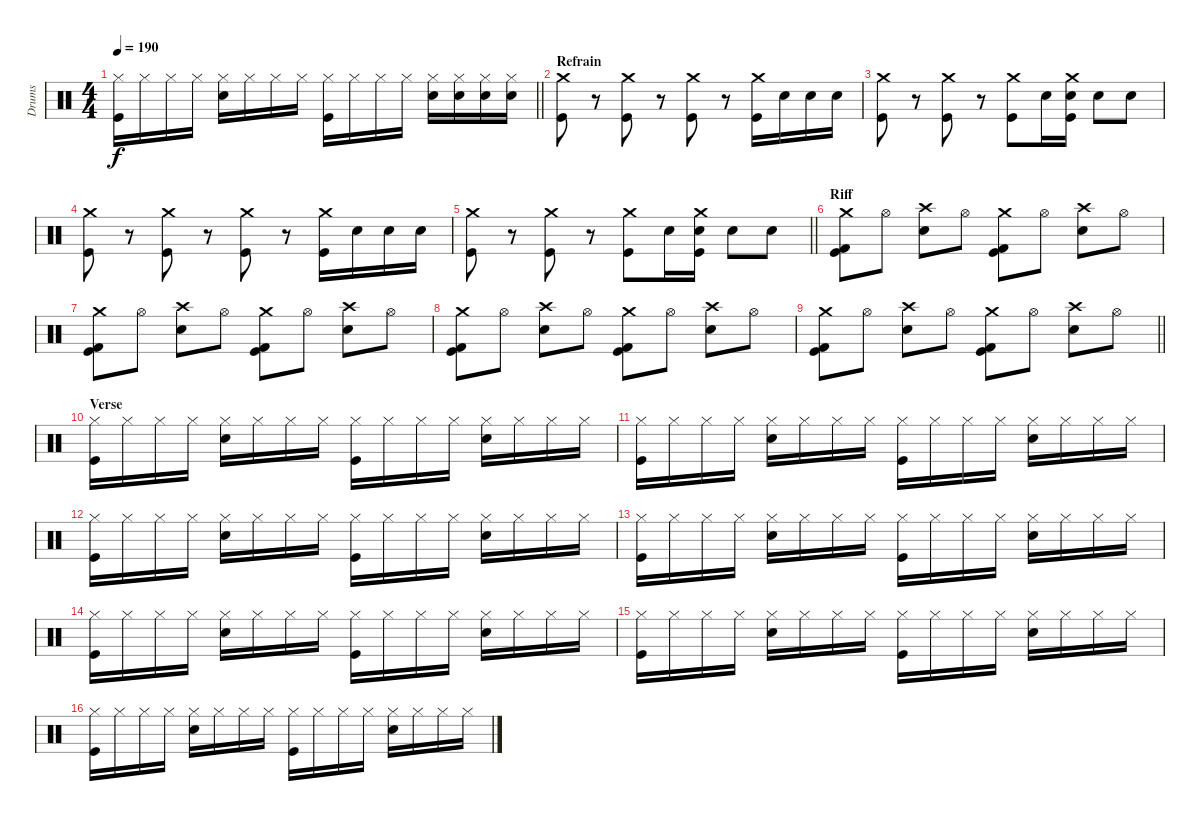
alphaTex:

\track ("Drums" "Drums") {instrument percussion}
\staff {score}
\articulation defaults
\ts (4 4)
\tempo 190
\clef neutral
\barLineRight lightlight
\ks c
("Hi-Hat (closed)" "Kick (hit)").16{dy f} "Hi-Hat (closed)".16 "Hi-Hat (closed)".16 "Hi-Hat (closed)".16 ("Hi-Hat (closed)" "Electric Snare (hit)").16 "Hi-Hat (closed)".16 "Hi-Hat (closed)".16 "Hi-Hat (closed)".16 ("Hi-Hat (closed)" "Kick (hit)").16 "Hi-Hat (closed)".16 "Hi-Hat (closed)".16 "Hi-Hat (closed)".16 ("Hi-Hat (closed)" "Electric Snare (hit)").16 ("Hi-Hat (closed)" "Electric Snare (hit)").16 ("Hi-Hat (closed)" "Electric Snare (hit)").16 ("Hi-Hat (closed)" "Electric Snare (hit)").16 |
\section ("" "Refrain")
("Crash medium (hit)" "Kick (hit)").8 r.8 ("Crash medium (hit)" "Kick (hit)").8 r.8 ("Crash medium (hit)" "Kick (hit)").8 r.8 ("Crash medium (hit)" "Kick (hit)").16 "Electric Snare (hit)".16 "Electric Snare (hit)".16 "Electric Snare (hit)".16 |
("Crash medium (hit)" "Kick (hit)").8 r.8 ("Crash medium (hit)" "Kick (hit)").8 r.8 ("Crash medium (hit)" "Kick (hit)").8 "Electric Snare (hit)".16 ("Crash medium (hit)" "Electric Snare (hit)" "Kick (hit)").16 "Electric Snare (hit)".8 "Electric Snare (hit)".8 |
("Crash medium (hit)" "Kick (hit)").8 r.8 ("Crash medium (hit)" "Kick (hit)").8 r.8 ("Crash medium (hit)" "Kick (hit)").8 r.8 ("Crash medium (hit)" "Kick (hit)").16 "Electric Snare (hit)".16 "Electric Snare (hit)".16 "Electric Snare (hit)".16 |
\barLineRight lightlight
("Crash medium (hit)" "Kick (hit)").8 r.8 ("Crash medium (hit)" "Kick (hit)").8 r.8 ("Crash medium (hit)" "Kick (hit)").8 "Electric Snare (hit)".16 ("Crash medium (hit)" "Electric Snare (hit)" "Kick (hit)").16 "Electric Snare (hit)".8 "Electric Snare (hit)".8 |
\section ("" "Riff")
("Crash medium (hit)" "Kick (hit) 2" "Kick (hit)").8 "Hi-Hat (open)".8 ("Crash high (hit)" "Electric Snare (hit)").8 "Hi-Hat (open)".8 ("Crash medium (hit)" "Kick (hit) 2" "Kick (hit)").8 "Hi-Hat (open)".8 ("Crash high (hit)" "Electric Snare (hit)").8 "Hi-Hat (open)".8 |
("Crash medium (hit)" "Kick (hit) 2" "Kick (hit)").8 "Hi-Hat (open)".8 ("Crash high (hit)" "Electric Snare (hit)").8 "Hi-Hat (open)".8 ("Crash medium (hit)" "Kick (hit) 2" "Kick (hit)").8 "Hi-Hat (open)".8 ("Crash high (hit)" "Electric Snare (hit)").8 "Hi-Hat (open)".8 |
("Crash medium (hit)" "Kick (hit) 2" "Kick (hit)").8 "Hi-Hat (open)".8 ("Crash high (hit)" "Electric Snare (hit)").8 "Hi-Hat (open)".8 ("Crash medium (hit)" "Kick (hit) 2" "Kick (hit)").8 "Hi-Hat (open)".8 ("Crash high (hit)" "Electric Snare (hit)").8 "Hi-Hat (open)".8 |
\barLineRight lightlight
("Crash medium (hit)" "Kick (hit) 2" "Kick (hit)").8 "Hi-Hat (open)".8 ("Crash high (hit)" "Electric Snare (hit)").8 "Hi-Hat (open)".8 ("Crash medium (hit)" "Kick (hit) 2" "Kick (hit)").8 "Hi-Hat (open)".8 ("Crash high (hit)" "Electric Snare (hit)").8 "Hi-Hat (open)".8 |
\section ("" "Verse")
("Hi-Hat (closed)" "Kick (hit)").16 "Hi-Hat (closed)".16 "Hi-Hat (closed)".16 "Hi-Hat (closed)".16 ("Hi-Hat (closed)" "Electric Snare (hit)").16 "Hi-Hat (closed)".16 "Hi-Hat (closed)".16 "Hi-Hat (closed)".16 ("Hi-Hat (closed)" "Kick (hit)").16 "Hi-Hat (closed)".16 "Hi-Hat (closed)".16 "Hi-Hat (closed)".16 ("Hi-Hat (closed)" "Electric Snare (hit)").16 "Hi-Hat (closed)".16 "Hi-Hat (closed)".16 "Hi-Hat (closed)".16 |
("Hi-Hat (closed)" "Kick (hit)").16 "Hi-Hat (closed)".16 "Hi-Hat (closed)".16 "Hi-Hat (closed)".16 ("Hi-Hat (closed)" "Electric Snare (hit)").16 "Hi-Hat (closed)".16 "Hi-Hat (closed)".16 "Hi-Hat (closed)".16 ("Hi-Hat (closed)" "Kick (hit)").16 "Hi-Hat (closed)".16 "Hi-Hat (closed)".16 "Hi-Hat (closed)".16 ("Hi-Hat (closed)" "Electric Snare (hit)").16 "Hi-Hat (closed)".16 "Hi-Hat (closed)".16 "Hi-Hat (closed)".16 |
("Hi-Hat (closed)" "Kick (hit)").16 "Hi-Hat (closed)".16 "Hi-Hat (closed)".16 "Hi-Hat (closed)".16 ("Hi-Hat (closed)" "Electric Snare (hit)").16 "Hi-Hat (closed)".16 "Hi-Hat (closed)".16 "Hi-Hat (closed)".16 ("Hi-Hat (closed)" "Kick (hit)").16 "Hi-Hat (closed)".16 "Hi-Hat (closed)".16 "Hi-Hat (closed)".16 ("Hi-Hat (closed)" "Electric Snare (hit)").16 "Hi-Hat (closed)".16 "Hi-Hat (closed)".16 "Hi-Hat (closed)".16 |
("Hi-Hat (closed)" "Kick (hit)").16 "Hi-Hat (closed)".16 "Hi-Hat (closed)".16 "Hi-Hat (closed)".16 ("Hi-Hat (closed)" "Electric Snare (hit)").16 "Hi-Hat (closed)".16 "Hi-Hat (closed)".16 "Hi-Hat (closed)".16 ("Hi-Hat (closed)" "Kick (hit)").16 "Hi-Hat (closed)".16 "Hi-Hat (closed)".16 "Hi-Hat (closed)".16 ("Hi-Hat (closed)" "Electric Snare (hit)").16 "Hi-Hat (closed)".16 "Hi-Hat (closed)".16 "Hi-Hat (closed)".16 |
("Hi-Hat (closed)" "Kick (hit)").16 "Hi-Hat (closed)".16 "Hi-Hat (closed)".16 "Hi-Hat (closed)".16 ("Hi-Hat (closed)" "Electric Snare (hit)").16 "Hi-Hat (closed)".16 "Hi-Hat (closed)".16 "Hi-Hat (closed)".16 ("Hi-Hat (closed)" "Kick (hit)").16 "Hi-Hat (closed)".16 "Hi-Hat (closed)".16 "Hi-Hat (closed)".16 ("Hi-Hat (closed)" "Electric Snare (hit)").16 "Hi-Hat (closed)".16 "Hi-Hat (closed)".16 "Hi-Hat (closed)".16 |
("Hi-Hat (closed)" "Kick (hit)").16 "Hi-Hat (closed)".16 "Hi-Hat (closed)".16 "Hi-Hat (closed)".16 ("Hi-Hat (closed)" "Electric Snare (hit)").16 "Hi-Hat (closed)".16 "Hi-Hat (closed)".16 "Hi-Hat (closed)".16 ("Hi-Hat (closed)" "Kick (hit)").16 "Hi-Hat (closed)".16 "Hi-Hat (closed)".16 "Hi-Hat (closed)".16 ("Hi-Hat (closed)" "Electric Snare (hit)").16 "Hi-Hat (closed)".16 "Hi-Hat (closed)".16 "Hi-Hat (closed)".16 |
("Hi-Hat (closed)" "Kick (hit)").16 "Hi-Hat (closed)".16 "Hi-Hat (closed)".16 "Hi-Hat (closed)".16 ("Hi-Hat (closed)" "Electric Snare (hit)").16 "Hi-Hat (closed)".16 "Hi-Hat (closed)".16 "Hi-Hat (closed)".16 ("Hi-Hat (closed)" "Kick (hit)").16 "Hi-Hat (closed)".16 "Hi-Hat (closed)".16 "Hi-Hat (closed)".16 ("Hi-Hat (closed)" "Electric Snare (hit)").16 "Hi-Hat (closed)".16 "Hi-Hat (closed)".16 "Hi-Hat (closed)".16
